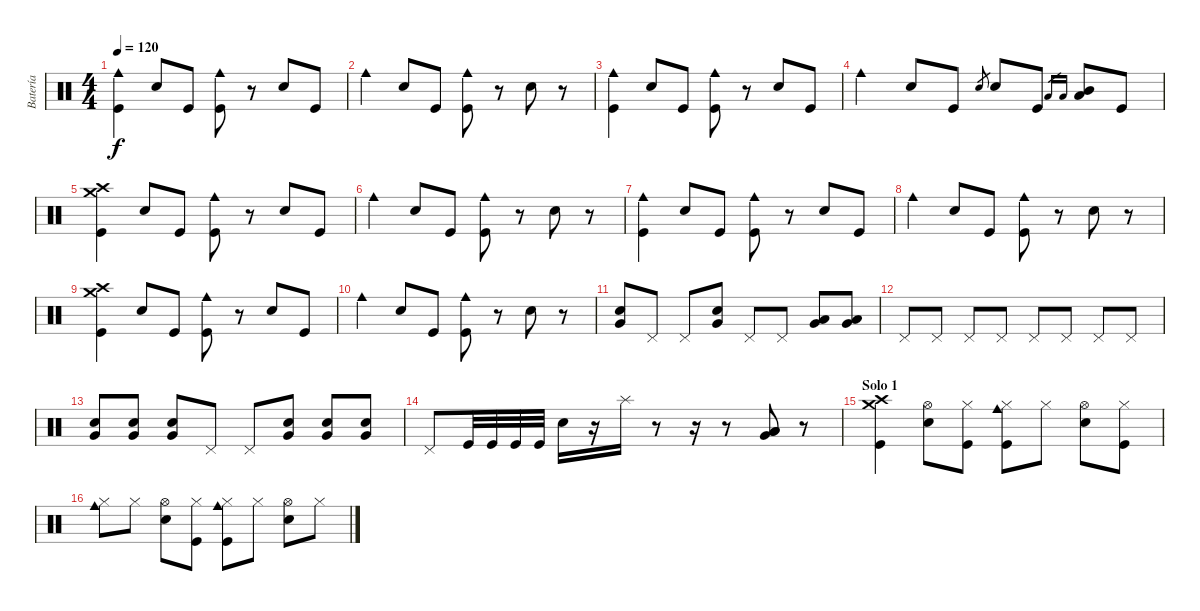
\track ("Batería" "Batería") {instrument percussion}
\staff {score}
\articulation defaults
\ts (4 4)
\tempo 120
\clef neutral
\ks c
("Cowbell medium (hit)" "Kick (hit)").4{dy f} "Electric Snare (hit)".8 "Kick (hit)".8 ("Cowbell medium (hit)" "Kick (hit)").8 r.8 "Electric Snare (hit)".8 "Kick (hit)".8 |
"Cowbell medium (hit)".4 "Electric Snare (hit)".8 "Kick (hit)".8 ("Cowbell medium (hit)" "Kick (hit)").8 r.8 "Electric Snare (hit)".8 r.8 |
("Cowbell medium (hit)" "Kick (hit)").4 "Electric Snare (hit)".8 "Kick (hit)".8 ("Cowbell medium (hit)" "Kick (hit)").8 r.8 "Electric Snare (hit)".8 "Kick (hit)".8 |
"Cowbell medium (hit)".4 "Electric Snare (hit)".8 "Kick (hit)".8 "Electric Snare (hit)".8{gr} "Electric Snare (hit)".8 "Kick (hit)".8 "Low Tom (hit)".16{gr} "Low Tom (hit)".16{gr} ("Mid Tom (hit)" "Low Tom (hit)").8 "Kick (hit)".8 |
("Crash medium (hit)" "Crash high (hit)" "Kick (hit)").4 "Electric Snare (hit)".8 "Kick (hit)".8 ("Cowbell medium (hit)" "Kick (hit)").8 r.8 "Electric Snare (hit)".8 "Kick (hit)".8 |
"Cowbell medium (hit)".4 "Electric Snare (hit)".8 "Kick (hit)".8 ("Cowbell medium (hit)" "Kick (hit)").8 r.8 "Electric Snare (hit)".8 r.8 |
("Cowbell medium (hit)" "Kick (hit)").4 "Electric Snare (hit)".8 "Kick (hit)".8 ("Cowbell medium (hit)" "Kick (hit)").8 r.8 "Electric Snare (hit)".8 "Kick (hit)".8 |
"Cowbell medium (hit)".4 "Electric Snare (hit)".8 "Kick (hit)".8 ("Cowbell medium (hit)" "Kick (hit)").8 r.8 "Electric Snare (hit)".8 r.8 |
("Crash medium (hit)" "Crash high (hit)" "Kick (hit)").4 "Electric Snare (hit)".8 "Kick (hit)".8 ("Cowbell medium (hit)" "Kick (hit)").8 r.8 "Electric Snare (hit)".8 "Kick (hit)".8 |
"Cowbell medium (hit)".4 "Electric Snare (hit)".8 "Kick (hit)".8 ("Cowbell medium (hit)" "Kick (hit)").8 r.8 "Electric Snare (hit)".8 r.8 |
("Very Low Tom (hit)" "Electric Snare (hit)").8 "Pedal Hi-Hat (hit)".8 "Pedal Hi-Hat (hit)".8 ("Very Low Tom (hit)" "Electric Snare (hit)").8 "Pedal Hi-Hat (hit)".8 "Pedal Hi-Hat (hit)".8 ("Very Low Tom (hit)" "Low Floor Tom (hit)").8 ("Very Low Tom (hit)" "Low Floor Tom (hit)").8 |
"Pedal Hi-Hat (hit)".8 "Pedal Hi-Hat (hit)".8 "Pedal Hi-Hat (hit)".8 "Pedal Hi-Hat (hit)".8 "Pedal Hi-Hat (hit)".8 "Pedal Hi-Hat (hit)".8 "Pedal Hi-Hat (hit)".8 "Pedal Hi-Hat (hit)".8 |
("Very Low Tom (hit)" "Electric Snare (hit)").8 ("Very Low Tom (hit)" "Electric Snare (hit)").8 ("Very Low Tom (hit)" "Electric Snare (hit)").8 "Pedal Hi-Hat (hit)".8 "Pedal Hi-Hat (hit)".8 ("Very Low Tom (hit)" "Electric Snare (hit)").8 ("Very Low Tom (hit)" "Electric Snare (hit)").8 ("Very Low Tom (hit)" "Electric Snare (hit)").8 |
"Pedal Hi-Hat (hit)".8 "Kick (hit)".32 "Kick (hit)".32 "Kick (hit)".32 "Kick (hit)".32 "Electric Snare (hit)".16 r.16 "Splash (hit)".16 r.8 r.16 r.8 ("Low Tom (hit)" "Very Low Tom (hit)" "Low Floor Tom (hit)").8 r.8 |
\section ("" "Solo 1")
("Crash medium (hit)" "Crash high (hit)" "Kick (hit)").4 ("Hi-Hat (open)" "Electric Snare (hit)").8 ("Hi-Hat (closed)" "Kick (hit)").8 ("Hi-Hat (closed)" "Cowbell medium (hit)" "Kick (hit)").8 "Hi-Hat (closed)".8 ("Hi-Hat (open)" "Electric Snare (hit)").8 ("Hi-Hat (closed)" "Kick (hit)").8 |
("Hi-Hat (closed)" "Cowbell medium (hit)").8 "Hi-Hat (closed)".8 ("Hi-Hat (open)" "Electric Snare (hit)").8 ("Hi-Hat (closed)" "Kick (hit)").8 ("Hi-Hat (closed)" "Cowbell medium (hit)" "Kick (hit)").8 "Hi-Hat (closed)".8 ("Hi-Hat (open)" "Electric Snare (hit)").8 "Hi-Hat (closed)".8
